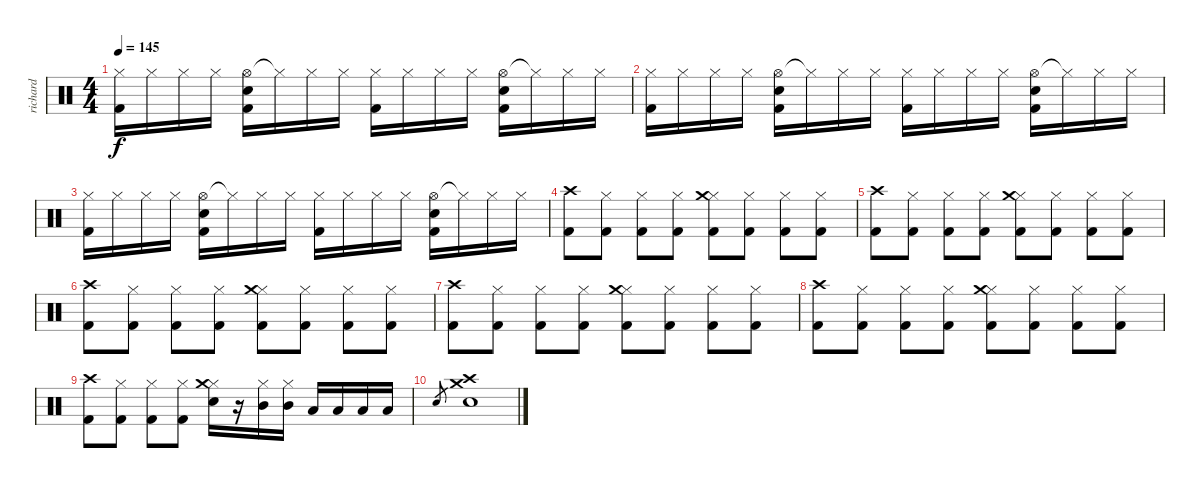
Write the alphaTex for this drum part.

\track ("richard" "richard") {instrument percussion}
\staff {score}
\articulation defaults
\ts (4 4)
\tempo 145
\clef neutral
\ks c
("Hi-Hat (closed)" "Kick (hit) 2").16{dy f} "Hi-Hat (closed)".16 "Hi-Hat (closed)".16 "Hi-Hat (closed)".16 ("Hi-Hat (open)" "Kick (hit) 2" "Snare (hit) 2").16 "Hi-Hat (closed)"{t}.16 "Hi-Hat (closed)".16 "Hi-Hat (closed)".16 ("Hi-Hat (closed)" "Kick (hit) 2").16 "Hi-Hat (closed)".16 "Hi-Hat (closed)".16 "Hi-Hat (closed)".16 ("Hi-Hat (open)" "Kick (hit) 2" "Snare (hit) 2").16 "Hi-Hat (closed)"{t}.16 "Hi-Hat (closed)".16 "Hi-Hat (closed)".16 |
("Hi-Hat (closed)" "Kick (hit) 2").16 "Hi-Hat (closed)".16 "Hi-Hat (closed)".16 "Hi-Hat (closed)".16 ("Hi-Hat (open)" "Kick (hit) 2" "Snare (hit) 2").16 "Hi-Hat (closed)"{t}.16 "Hi-Hat (closed)".16 "Hi-Hat (closed)".16 ("Hi-Hat (closed)" "Kick (hit) 2").16 "Hi-Hat (closed)".16 "Hi-Hat (closed)".16 "Hi-Hat (closed)".16 ("Hi-Hat (open)" "Kick (hit) 2" "Snare (hit) 2").16 "Hi-Hat (closed)"{t}.16 "Hi-Hat (closed)".16 "Hi-Hat (closed)".16 |
("Hi-Hat (closed)" "Kick (hit) 2").16 "Hi-Hat (closed)".16 "Hi-Hat (closed)".16 "Hi-Hat (closed)".16 ("Hi-Hat (open)" "Kick (hit) 2" "Snare (hit) 2").16 "Hi-Hat (closed)"{t}.16 "Hi-Hat (closed)".16 "Hi-Hat (closed)".16 ("Hi-Hat (closed)" "Kick (hit) 2").16 "Hi-Hat (closed)".16 "Hi-Hat (closed)".16 "Hi-Hat (closed)".16 ("Hi-Hat (open)" "Kick (hit) 2" "Snare (hit) 2").16 "Hi-Hat (closed)"{t}.16 "Hi-Hat (closed)".16 "Hi-Hat (closed)".16 |
("Kick (hit) 2" "Crash high (hit)").8 ("Hi-Hat (closed)" "Kick (hit) 2").8 ("Hi-Hat (closed)" "Kick (hit) 2").8 ("Hi-Hat (closed)" "Kick (hit) 2").8 ("Hi-Hat (closed)" "Kick (hit) 2" "Crash medium (hit)").8 ("Hi-Hat (closed)" "Kick (hit) 2").8 ("Hi-Hat (closed)" "Kick (hit) 2").8 ("Hi-Hat (closed)" "Kick (hit) 2").8 |
("Kick (hit) 2" "Crash high (hit)").8 ("Hi-Hat (closed)" "Kick (hit) 2").8 ("Hi-Hat (closed)" "Kick (hit) 2").8 ("Hi-Hat (closed)" "Kick (hit) 2").8 ("Hi-Hat (closed)" "Kick (hit) 2" "Crash medium (hit)").8 ("Hi-Hat (closed)" "Kick (hit) 2").8 ("Hi-Hat (closed)" "Kick (hit) 2").8 ("Hi-Hat (closed)" "Kick (hit) 2").8 |
("Kick (hit) 2" "Crash high (hit)").8 ("Hi-Hat (closed)" "Kick (hit) 2").8 ("Hi-Hat (closed)" "Kick (hit) 2").8 ("Hi-Hat (closed)" "Kick (hit) 2").8 ("Hi-Hat (closed)" "Kick (hit) 2" "Crash medium (hit)").8 ("Hi-Hat (closed)" "Kick (hit) 2").8 ("Hi-Hat (closed)" "Kick (hit) 2").8 ("Hi-Hat (closed)" "Kick (hit) 2").8 |
("Kick (hit) 2" "Crash high (hit)").8 ("Hi-Hat (closed)" "Kick (hit) 2").8 ("Hi-Hat (closed)" "Kick (hit) 2").8 ("Hi-Hat (closed)" "Kick (hit) 2").8 ("Hi-Hat (closed)" "Kick (hit) 2" "Crash medium (hit)").8 ("Hi-Hat (closed)" "Kick (hit) 2").8 ("Hi-Hat (closed)" "Kick (hit) 2").8 ("Hi-Hat (closed)" "Kick (hit) 2").8 |
("Kick (hit) 2" "Crash high (hit)").8 ("Hi-Hat (closed)" "Kick (hit) 2").8 ("Hi-Hat (closed)" "Kick (hit) 2").8 ("Hi-Hat (closed)" "Kick (hit) 2").8 ("Hi-Hat (closed)" "Kick (hit) 2" "Crash medium (hit)").8 ("Hi-Hat (closed)" "Kick (hit) 2").8 ("Hi-Hat (closed)" "Kick (hit) 2").8 ("Hi-Hat (closed)" "Kick (hit) 2").8 |
("Kick (hit) 2" "Crash high (hit)").8 ("Hi-Hat (closed)" "Kick (hit) 2").8 ("Hi-Hat (closed)" "Kick (hit) 2").8 ("Hi-Hat (closed)" "Kick (hit) 2").8 ("Hi-Hat (closed)" "Snare (hit) 2" "Crash medium (hit)").16 r.16 ("Hi-Hat (closed)" "Mid Tom (hit)").16 ("Hi-Hat (closed)" "Mid Tom (hit)").16 "Low Tom (hit)".16 "Low Tom (hit)".16 "Low Floor Tom (hit)".16 "Low Floor Tom (hit)".16 |
"Snare (hit) 2".8{gr} ("Snare (hit) 2" "Crash high (hit)" "Crash medium (hit)").1
